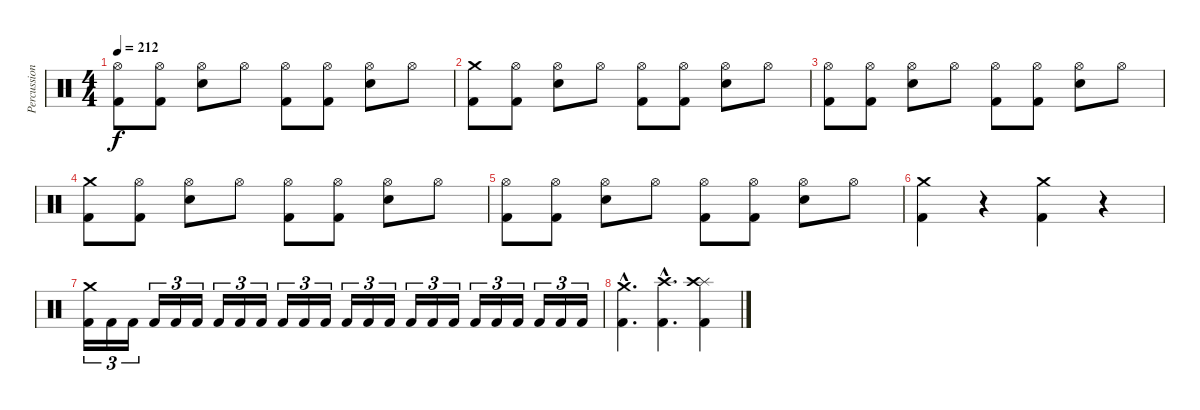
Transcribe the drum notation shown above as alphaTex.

\track ("Percussion" "Percussion") {instrument percussion}
\staff {score}
\articulation defaults
\ts (4 4)
\tempo 212
\clef neutral
\ks c
("Kick (hit) 2" "Hi-Hat (open)").8{dy f} ("Kick (hit) 2" "Hi-Hat (open)").8 ("Snare (hit) 2" "Hi-Hat (open)").8 "Hi-Hat (open)".8 ("Kick (hit) 2" "Hi-Hat (open)").8 ("Kick (hit) 2" "Hi-Hat (open)").8 ("Snare (hit) 2" "Hi-Hat (open)").8 "Hi-Hat (open)".8 |
("Kick (hit) 2" "Crash medium (hit)").8 ("Kick (hit) 2" "Hi-Hat (open)").8 ("Snare (hit) 2" "Hi-Hat (open)").8 "Hi-Hat (open)".8 ("Kick (hit) 2" "Hi-Hat (open)").8 ("Kick (hit) 2" "Hi-Hat (open)").8 ("Snare (hit) 2" "Hi-Hat (open)").8 "Hi-Hat (open)".8 |
("Kick (hit) 2" "Hi-Hat (open)").8 ("Kick (hit) 2" "Hi-Hat (open)").8 ("Snare (hit) 2" "Hi-Hat (open)").8 "Hi-Hat (open)".8 ("Kick (hit) 2" "Hi-Hat (open)").8 ("Kick (hit) 2" "Hi-Hat (open)").8 ("Snare (hit) 2" "Hi-Hat (open)").8 "Hi-Hat (open)".8 |
("Kick (hit) 2" "Crash medium (hit)").8 ("Kick (hit) 2" "Hi-Hat (open)").8 ("Snare (hit) 2" "Hi-Hat (open)").8 "Hi-Hat (open)".8 ("Kick (hit) 2" "Hi-Hat (open)").8 ("Kick (hit) 2" "Hi-Hat (open)").8 ("Snare (hit) 2" "Hi-Hat (open)").8 "Hi-Hat (open)".8 |
("Kick (hit) 2" "Hi-Hat (open)").8 ("Kick (hit) 2" "Hi-Hat (open)").8 ("Snare (hit) 2" "Hi-Hat (open)").8 "Hi-Hat (open)".8 ("Kick (hit) 2" "Hi-Hat (open)").8 ("Kick (hit) 2" "Hi-Hat (open)").8 ("Snare (hit) 2" "Hi-Hat (open)").8 "Hi-Hat (open)".8 |
("Kick (hit) 2" "Crash medium (hit)").4 r.4 ("Kick (hit) 2" "Crash medium (hit)").4 r.4 |
("Crash medium (hit)" "Kick (hit) 2").16{tu (3 2)} "Kick (hit) 2".16{tu (3 2)} "Kick (hit) 2".16{tu (3 2)} "Kick (hit) 2".16{tu (3 2)} "Kick (hit) 2".16{tu (3 2)} "Kick (hit) 2".16{tu (3 2)} "Kick (hit) 2".16{tu (3 2)} "Kick (hit) 2".16{tu (3 2)} "Kick (hit) 2".16{tu (3 2)} "Kick (hit) 2".16{tu (3 2)} "Kick (hit) 2".16{tu (3 2)} "Kick (hit) 2".16{tu (3 2)} "Kick (hit) 2".16{tu (3 2)} "Kick (hit) 2".16{tu (3 2)} "Kick (hit) 2".16{tu (3 2)} "Kick (hit) 2".16{tu (3 2)} "Kick (hit) 2".16{tu (3 2)} "Kick (hit) 2".16{tu (3 2)} "Kick (hit) 2".16{tu (3 2)} "Kick (hit) 2".16{tu (3 2)} "Kick (hit) 2".16{tu (3 2)} "Kick (hit) 2".16{tu (3 2)} "Kick (hit) 2".16{tu (3 2)} "Kick (hit) 2".16{tu (3 2)} |
("Crash medium (hit)"{hac} "Kick (hit) 2"{hac}).4{d} ("Crash high (hit)"{hac} "Kick (hit) 2"{hac}).4{d} ("Splash (hit)" "Crash high (hit)" "Kick (hit) 2").4
